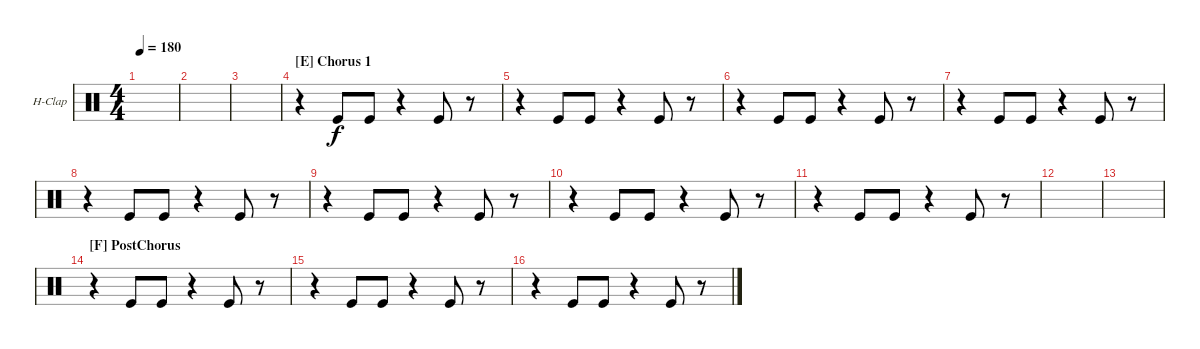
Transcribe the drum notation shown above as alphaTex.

\defaultSystemsLayout 4
\bracketExtendMode groupsimilarinstruments
\firstSystemTrackNameOrientation horizontal
\otherSystemsTrackNameOrientation horizontal
\track ("Hand Clap" "H-Clap") {instrument percussion}
\staff {score}
\articulation defaults
\ts (4 4)
\tempo 180
\clef neutral
\ks c
|
|
|
\section ("E" "Chorus 1")
r.4 "Kick (hit)".8 "Kick (hit)".8 r.4 "Kick (hit)".8 r.8 |
r.4 "Kick (hit)".8 "Kick (hit)".8 r.4 "Kick (hit)".8 r.8 |
r.4 "Kick (hit)".8 "Kick (hit)".8 r.4 "Kick (hit)".8 r.8 |
r.4 "Kick (hit)".8 "Kick (hit)".8 r.4 "Kick (hit)".8 r.8 |
r.4 "Kick (hit)".8 "Kick (hit)".8 r.4 "Kick (hit)".8 r.8 |
r.4 "Kick (hit)".8 "Kick (hit)".8 r.4 "Kick (hit)".8 r.8 |
r.4 "Kick (hit)".8 "Kick (hit)".8 r.4 "Kick (hit)".8 r.8 |
r.4 "Kick (hit)".8 "Kick (hit)".8 r.4 "Kick (hit)".8 r.8 |
|
|
\section ("F" "PostChorus")
r.4 "Kick (hit)".8 "Kick (hit)".8 r.4 "Kick (hit)".8 r.8 |
r.4 "Kick (hit)".8 "Kick (hit)".8 r.4 "Kick (hit)".8 r.8 |
r.4 "Kick (hit)".8 "Kick (hit)".8 r.4 "Kick (hit)".8 r.8
